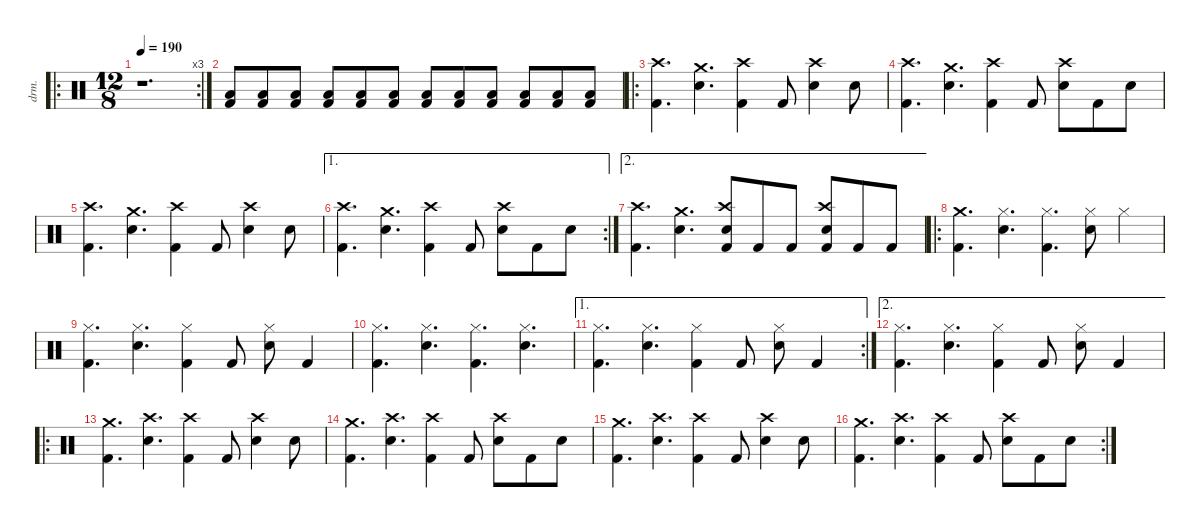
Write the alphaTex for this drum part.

\defaultSystemsLayout 4
\hideDynamics
\bracketExtendMode nobrackets
\otherSystemsTrackNameOrientation horizontal
\track ("Drums" "drm.") {defaultSystemsLayout 4 instrument percussion}
\staff {score}
\articulation defaults
\ro
\rc 3
\ts (12 8)
\beaming (8 3 3 3 3)
\tempo 190
\clef neutral
\ks c
r.1{d dy f beam Down} |
("Low Tom (hit)" "Kick (hit) 2").8{beam Up} ("Low Floor Tom (hit)" "Kick (hit) 2").8{beam Up} ("Low Floor Tom (hit)" "Kick (hit) 2").8{beam Up} ("Low Tom (hit)" "Kick (hit) 2").8{beam Up} ("Low Floor Tom (hit)" "Kick (hit) 2").8{beam Up} ("Low Floor Tom (hit)" "Kick (hit) 2").8{beam Up} ("Low Tom (hit)" "Kick (hit) 2").8{beam Up} ("Low Floor Tom (hit)" "Kick (hit) 2").8{beam Up} ("Low Floor Tom (hit)" "Kick (hit) 2").8{beam Up} ("Low Tom (hit)" "Kick (hit) 2").8{beam Up} ("Low Floor Tom (hit)" "Kick (hit) 2").8{beam Up} ("Low Floor Tom (hit)" "Kick (hit) 2").8{beam Up} |
\ro
("Crash high (hit)" "Kick (hit) 2").4{d beam Down} ("Crash medium (hit)" "Snare (hit) 2").4{d beam Down} ("Crash high (hit)" "Kick (hit) 2").4{beam Down} "Kick (hit) 2".8{beam Up} ("Crash high (hit)" "Snare (hit) 2").4{beam Down} "Snare (hit) 2".8{beam Down} |
("Crash high (hit)" "Kick (hit) 2").4{d beam Down} ("Crash medium (hit)" "Snare (hit) 2").4{d beam Down} ("Crash high (hit)" "Kick (hit) 2").4{beam Down} "Kick (hit) 2".8{beam Up} ("Crash high (hit)" "Snare (hit) 2").8{beam Down} "Kick (hit) 2".8{beam Down} "Snare (hit) 2".8{beam Down} |
("Crash high (hit)" "Kick (hit) 2").4{d beam Down} ("Crash medium (hit)" "Snare (hit) 2").4{d beam Down} ("Crash high (hit)" "Kick (hit) 2").4{beam Down} "Kick (hit) 2".8{beam Up} ("Crash high (hit)" "Snare (hit) 2").4{beam Down} "Snare (hit) 2".8{beam Down} |
\ae 1
\rc 2
("Crash high (hit)" "Kick (hit) 2").4{d beam Down} ("Crash medium (hit)" "Snare (hit) 2").4{d beam Down} ("Crash high (hit)" "Kick (hit) 2").4{beam Down} "Kick (hit) 2".8{beam Up} ("Crash high (hit)" "Snare (hit) 2").8{beam Down} "Kick (hit) 2".8{beam Down} "Snare (hit) 2".8{beam Down} |
\ae 2
("Crash high (hit)" "Kick (hit) 2").4{d beam Down} ("Crash medium (hit)" "Snare (hit) 2").4{d beam Down} ("Crash high (hit)" "Snare (hit) 2" "Kick (hit) 2").8{beam Up} "Kick (hit) 2".8{beam Up} "Kick (hit) 2".8{beam Up} ("Crash high (hit)" "Snare (hit) 2" "Kick (hit) 2").8{beam Up} "Kick (hit) 2".8{beam Up} "Kick (hit) 2".8{beam Up} |
\ro
("Crash medium (hit)" "Kick (hit) 2").4{d beam Down} ("Hi-Hat (closed)" "Snare (hit) 2").4{d beam Down} ("Hi-Hat (closed)" "Kick (hit) 2").4{d beam Down} ("Hi-Hat (closed)" "Snare (hit) 2").8{beam Down} "Hi-Hat (closed)".4{beam Down} |
("Hi-Hat (closed)" "Kick (hit) 2").4{d beam Down} ("Hi-Hat (closed)" "Snare (hit) 2").4{d beam Down} ("Hi-Hat (closed)" "Kick (hit) 2").4{beam Down} "Kick (hit) 2".8{beam Up} ("Hi-Hat (closed)" "Snare (hit) 2").8{beam Down} "Kick (hit) 2".4{beam Up} |
("Hi-Hat (closed)" "Kick (hit) 2").4{d beam Down} ("Hi-Hat (closed)" "Snare (hit) 2").4{d beam Down} ("Hi-Hat (closed)" "Kick (hit) 2").4{d beam Down} ("Hi-Hat (closed)" "Snare (hit) 2").4{d beam Down} |
\ae 1
\rc 2
("Hi-Hat (closed)" "Kick (hit) 2").4{d beam Down} ("Hi-Hat (closed)" "Snare (hit) 2").4{d beam Down} ("Hi-Hat (closed)" "Kick (hit) 2").4{beam Down} "Kick (hit) 2".8{beam Up} ("Hi-Hat (closed)" "Snare (hit) 2").8{beam Down} "Kick (hit) 2".4{beam Up} |
\ae 2
("Hi-Hat (closed)" "Kick (hit) 2").4{d beam Down} ("Hi-Hat (closed)" "Snare (hit) 2").4{d beam Down} ("Hi-Hat (closed)" "Kick (hit) 2").4{beam Down} "Kick (hit) 2".8{beam Up} ("Hi-Hat (closed)" "Snare (hit) 2").8{beam Down} "Kick (hit) 2".4{beam Up} |
\ro
("Crash medium (hit)" "Kick (hit) 2").4{d beam Down} ("Crash high (hit)" "Snare (hit) 2").4{d beam Down} ("Crash high (hit)" "Kick (hit) 2").4{beam Down} "Kick (hit) 2".8{beam Up} ("Crash high (hit)" "Snare (hit) 2").4{beam Down} "Snare (hit) 2".8{beam Down} |
("Crash medium (hit)" "Kick (hit) 2").4{d beam Down} ("Crash high (hit)" "Snare (hit) 2").4{d beam Down} ("Crash high (hit)" "Kick (hit) 2").4{beam Down} "Kick (hit) 2".8{beam Up} ("Crash high (hit)" "Snare (hit) 2").8{beam Down} "Kick (hit) 2".8{beam Down} "Snare (hit) 2".8{beam Down} |
("Crash medium (hit)" "Kick (hit) 2").4{d beam Down} ("Crash high (hit)" "Snare (hit) 2").4{d beam Down} ("Crash high (hit)" "Kick (hit) 2").4{beam Down} "Kick (hit) 2".8{beam Up} ("Crash high (hit)" "Snare (hit) 2").4{beam Down} "Snare (hit) 2".8{beam Down} |
\rc 2
("Crash medium (hit)" "Kick (hit) 2").4{d beam Down} ("Crash high (hit)" "Snare (hit) 2").4{d beam Down} ("Crash high (hit)" "Kick (hit) 2").4{beam Down} "Kick (hit) 2".8{beam Up} ("Crash high (hit)" "Snare (hit) 2").8{beam Down} "Kick (hit) 2".8{beam Down} "Snare (hit) 2".8{beam Down}
